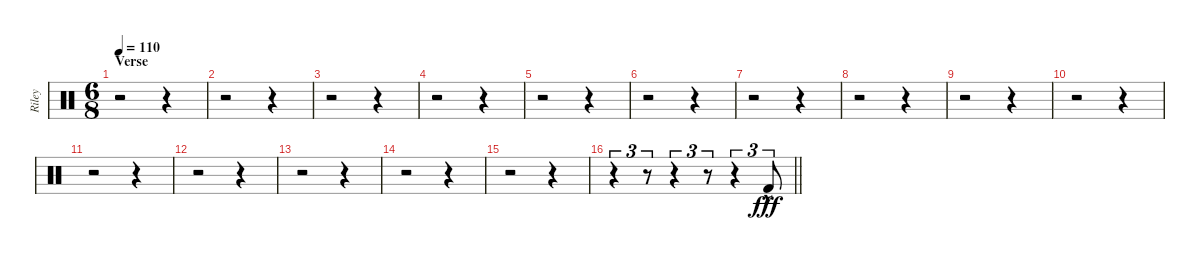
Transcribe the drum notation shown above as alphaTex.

\track ("Riley" "Riley") {instrument percussion}
\staff {score}
\articulation defaults
\ts (6 8)
\section ("" "Verse")
\tempo 110
\clef neutral
\ks c
r.2{dy fff} r.4 |
r.2 r.4 |
r.2 r.4 |
r.2 r.4 |
r.2 r.4 |
r.2 r.4 |
r.2 r.4 |
r.2 r.4 |
r.2 r.4 |
r.2 r.4 |
r.2 r.4 |
r.2 r.4 |
r.2 r.4 |
r.2 r.4 |
r.2 r.4 |
\barLineRight lightlight
r.4{tu (3 2)} r.8{tu (3 2)} r.4{tu (3 2)} r.8{tu (3 2)} r.4{tu (3 2)} "Kick (hit) 2"{hac}.8{tu (3 2)}
